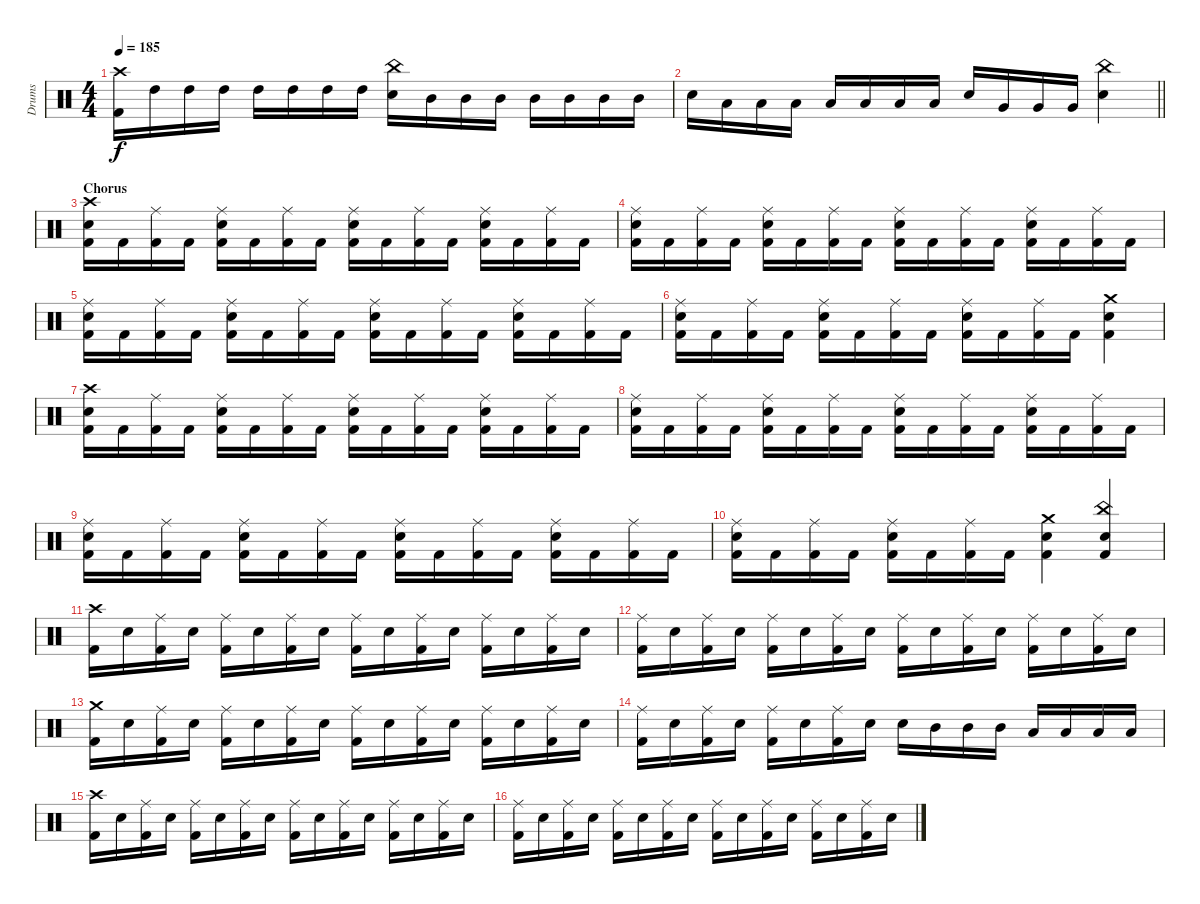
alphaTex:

\track ("Drums" "Drums") {instrument percussion}
\staff {score}
\articulation defaults
\ts (4 4)
\tempo 185
\clef neutral
\ks c
("Crash high (hit)" "Kick (hit) 2").16{dy f} "High Tom (hit)".16 "High Tom (hit)".16 "High Tom (hit)".16 "High Tom (hit)".16 "High Tom (hit)".16 "High Tom (hit)".16 "High Tom (hit)".16 ("China (hit)" "Electric Snare (hit)").16 "Mid Tom (hit)".16 "Mid Tom (hit)".16 "Mid Tom (hit)".16 "Mid Tom (hit)".16 "Mid Tom (hit)".16 "Mid Tom (hit)".16 "Mid Tom (hit)".16 |
\barLineRight lightlight "Electric Snare (hit)".16 "Low Tom (hit)".16 "Low Tom (hit)".16 "Low Tom (hit)".16 "Low Tom (hit)".16 "Low Tom (hit)".16 "Low Tom (hit)".16 "Low Tom (hit)".16 "Electric Snare (hit)".16 "Very Low Tom (hit)".16 "Very Low Tom (hit)".16 "Very Low Tom (hit)".16
("China (hit)" "Electric Snare (hit)").4 |
\section ("" "Chorus")
("Crash high (hit)" "Electric Snare (hit)" "Kick (hit) 2").16 "Kick (hit) 2".16 ("Ride (middle)" "Kick (hit) 2").16 "Kick (hit) 2".16 ("Ride (middle)" "Electric Snare (hit)" "Kick (hit) 2").16 "Kick (hit) 2".16 ("Ride (middle)" "Kick (hit) 2").16 "Kick (hit) 2".16 ("Ride (middle)" "Electric Snare (hit)" "Kick (hit) 2").16 "Kick (hit) 2".16 ("Ride (middle)" "Kick (hit) 2").16 "Kick (hit) 2".16 ("Ride (middle)" "Electric Snare (hit)" "Kick (hit) 2").16 "Kick (hit) 2".16 ("Ride (middle)" "Kick (hit) 2").16 "Kick (hit) 2".16 |
("Ride (middle)" "Electric Snare (hit)" "Kick (hit) 2").16 "Kick (hit) 2".16 ("Ride (middle)" "Kick (hit) 2").16 "Kick (hit) 2".16 ("Ride (middle)" "Electric Snare (hit)" "Kick (hit) 2").16 "Kick (hit) 2".16 ("Ride (middle)" "Kick (hit) 2").16 "Kick (hit) 2".16 ("Ride (middle)" "Electric Snare (hit)" "Kick (hit) 2").16 "Kick (hit) 2".16 ("Ride (middle)" "Kick (hit) 2").16 "Kick (hit) 2".16 ("Ride (middle)" "Electric Snare (hit)" "Kick (hit) 2").16 "Kick (hit) 2".16 ("Ride (middle)" "Kick (hit) 2").16 "Kick (hit) 2".16 |
("Ride (middle)" "Electric Snare (hit)" "Kick (hit) 2").16 "Kick (hit) 2".16 ("Ride (middle)" "Kick (hit) 2").16 "Kick (hit) 2".16 ("Ride (middle)" "Electric Snare (hit)" "Kick (hit) 2").16 "Kick (hit) 2".16 ("Ride (middle)" "Kick (hit) 2").16 "Kick (hit) 2".16 ("Ride (middle)" "Electric Snare (hit)" "Kick (hit) 2").16 "Kick (hit) 2".16 ("Ride (middle)" "Kick (hit) 2").16 "Kick (hit) 2".16 ("Ride (middle)" "Electric Snare (hit)" "Kick (hit) 2").16 "Kick (hit) 2".16 ("Ride (middle)" "Kick (hit) 2").16 "Kick (hit) 2".16 |
("Ride (middle)" "Electric Snare (hit)" "Kick (hit) 2").16 "Kick (hit) 2".16 ("Ride (middle)" "Kick (hit) 2").16 "Kick (hit) 2".16 ("Ride (middle)" "Electric Snare (hit)" "Kick (hit) 2").16 "Kick (hit) 2".16 ("Ride (middle)" "Kick (hit) 2").16 "Kick (hit) 2".16 ("Ride (middle)" "Electric Snare (hit)" "Kick (hit) 2").16 "Kick (hit) 2".16 ("Ride (middle)" "Kick (hit) 2").16 "Kick (hit) 2".16 ("Crash medium (hit)" "Electric Snare (hit)" "Kick (hit) 2").4 |
("Crash high (hit)" "Electric Snare (hit)" "Kick (hit) 2").16 "Kick (hit) 2".16 ("Ride (middle)" "Kick (hit) 2").16 "Kick (hit) 2".16 ("Ride (middle)" "Electric Snare (hit)" "Kick (hit) 2").16 "Kick (hit) 2".16 ("Ride (middle)" "Kick (hit) 2").16 "Kick (hit) 2".16 ("Ride (middle)" "Electric Snare (hit)" "Kick (hit) 2").16 "Kick (hit) 2".16 ("Ride (middle)" "Kick (hit) 2").16 "Kick (hit) 2".16 ("Ride (middle)" "Electric Snare (hit)" "Kick (hit) 2").16 "Kick (hit) 2".16 ("Ride (middle)" "Kick (hit) 2").16 "Kick (hit) 2".16 |
("Ride (middle)" "Electric Snare (hit)" "Kick (hit) 2").16 "Kick (hit) 2".16 ("Ride (middle)" "Kick (hit) 2").16 "Kick (hit) 2".16 ("Ride (middle)" "Electric Snare (hit)" "Kick (hit) 2").16 "Kick (hit) 2".16 ("Ride (middle)" "Kick (hit) 2").16 "Kick (hit) 2".16 ("Ride (middle)" "Electric Snare (hit)" "Kick (hit) 2").16 "Kick (hit) 2".16 ("Ride (middle)" "Kick (hit) 2").16 "Kick (hit) 2".16 ("Ride (middle)" "Electric Snare (hit)" "Kick (hit) 2").16 "Kick (hit) 2".16 ("Ride (middle)" "Kick (hit) 2").16 "Kick (hit) 2".16 |
("Ride (middle)" "Electric Snare (hit)" "Kick (hit) 2").16 "Kick (hit) 2".16 ("Ride (middle)" "Kick (hit) 2").16 "Kick (hit) 2".16 ("Ride (middle)" "Electric Snare (hit)" "Kick (hit) 2").16 "Kick (hit) 2".16 ("Ride (middle)" "Kick (hit) 2").16 "Kick (hit) 2".16 ("Ride (middle)" "Electric Snare (hit)" "Kick (hit) 2").16 "Kick (hit) 2".16 ("Ride (middle)" "Kick (hit) 2").16 "Kick (hit) 2".16 ("Ride (middle)" "Electric Snare (hit)" "Kick (hit) 2").16 "Kick (hit) 2".16 ("Ride (middle)" "Kick (hit) 2").16 "Kick (hit) 2".16 |
("Ride (middle)" "Electric Snare (hit)" "Kick (hit) 2").16 "Kick (hit) 2".16 ("Ride (middle)" "Kick (hit) 2").16 "Kick (hit) 2".16 ("Ride (middle)" "Electric Snare (hit)" "Kick (hit) 2").16 "Kick (hit) 2".16 ("Ride (middle)" "Kick (hit) 2").16 "Kick (hit) 2".16 ("Crash medium (hit)" "Electric Snare (hit)" "Kick (hit) 2").4 ("China (hit)" "Electric Snare (hit)" "Kick (hit) 2").4 |
("Crash high (hit)" "Kick (hit) 2").16 "Electric Snare (hit)".16 ("Ride (middle)" "Kick (hit) 2").16 "Electric Snare (hit)".16 ("Ride (middle)" "Kick (hit) 2").16 "Electric Snare (hit)".16 ("Ride (middle)" "Kick (hit) 2").16 "Electric Snare (hit)".16 ("Ride (middle)" "Kick (hit) 2").16 "Electric Snare (hit)".16 ("Ride (middle)" "Kick (hit) 2").16 "Electric Snare (hit)".16 ("Ride (middle)" "Kick (hit) 2").16 "Electric Snare (hit)".16 ("Ride (middle)" "Kick (hit) 2").16 "Electric Snare (hit)".16 |
("Ride (middle)" "Kick (hit) 2").16 "Electric Snare (hit)".16 ("Ride (middle)" "Kick (hit) 2").16 "Electric Snare (hit)".16 ("Ride (middle)" "Kick (hit) 2").16 "Electric Snare (hit)".16 ("Ride (middle)" "Kick (hit) 2").16 "Electric Snare (hit)".16 ("Ride (middle)" "Kick (hit) 2").16 "Electric Snare (hit)".16 ("Ride (middle)" "Kick (hit) 2").16 "Electric Snare (hit)".16 ("Ride (middle)" "Kick (hit) 2").16 "Electric Snare (hit)".16 ("Ride (middle)" "Kick (hit) 2").16 "Electric Snare (hit)".16 |
("Crash medium (hit)" "Kick (hit) 2").16 "Electric Snare (hit)".16 ("Ride (middle)" "Kick (hit) 2").16 "Electric Snare (hit)".16 ("Ride (middle)" "Kick (hit) 2").16 "Electric Snare (hit)".16 ("Ride (middle)" "Kick (hit) 2").16 "Electric Snare (hit)".16 ("Ride (middle)" "Kick (hit) 2").16 "Electric Snare (hit)".16 ("Ride (middle)" "Kick (hit) 2").16 "Electric Snare (hit)".16 ("Ride (middle)" "Kick (hit) 2").16 "Electric Snare (hit)".16 ("Ride (middle)" "Kick (hit) 2").16 "Electric Snare (hit)".16 |
("Ride (middle)" "Kick (hit) 2").16 "Electric Snare (hit)".16 ("Ride (middle)" "Kick (hit) 2").16 "Electric Snare (hit)".16 ("Ride (middle)" "Kick (hit) 2").16 "Electric Snare (hit)".16 ("Ride (middle)" "Kick (hit) 2").16 "Electric Snare (hit)".16 "Electric Snare (hit)".16 "Mid Tom (hit)".16 "Mid Tom (hit)".16 "Mid Tom (hit)".16 "Low Tom (hit)".16 "Low Tom (hit)".16 "Low Tom (hit)".16 "Low Tom (hit)".16 |
("Crash high (hit)" "Kick (hit) 2").16 "Electric Snare (hit)".16 ("Ride (middle)" "Kick (hit) 2").16 "Electric Snare (hit)".16 ("Ride (middle)" "Kick (hit) 2").16 "Electric Snare (hit)".16 ("Ride (middle)" "Kick (hit) 2").16 "Electric Snare (hit)".16 ("Ride (middle)" "Kick (hit) 2").16 "Electric Snare (hit)".16 ("Ride (middle)" "Kick (hit) 2").16 "Electric Snare (hit)".16 ("Ride (middle)" "Kick (hit) 2").16 "Electric Snare (hit)".16 ("Ride (middle)" "Kick (hit) 2").16 "Electric Snare (hit)".16 |
("Ride (middle)" "Kick (hit) 2").16 "Electric Snare (hit)".16 ("Ride (middle)" "Kick (hit) 2").16 "Electric Snare (hit)".16 ("Ride (middle)" "Kick (hit) 2").16 "Electric Snare (hit)".16 ("Ride (middle)" "Kick (hit) 2").16 "Electric Snare (hit)".16 ("Ride (middle)" "Kick (hit) 2").16 "Electric Snare (hit)".16 ("Ride (middle)" "Kick (hit) 2").16 "Electric Snare (hit)".16 ("Ride (middle)" "Kick (hit) 2").16 "Electric Snare (hit)".16 ("Ride (middle)" "Kick (hit) 2").16 "Electric Snare (hit)".16
